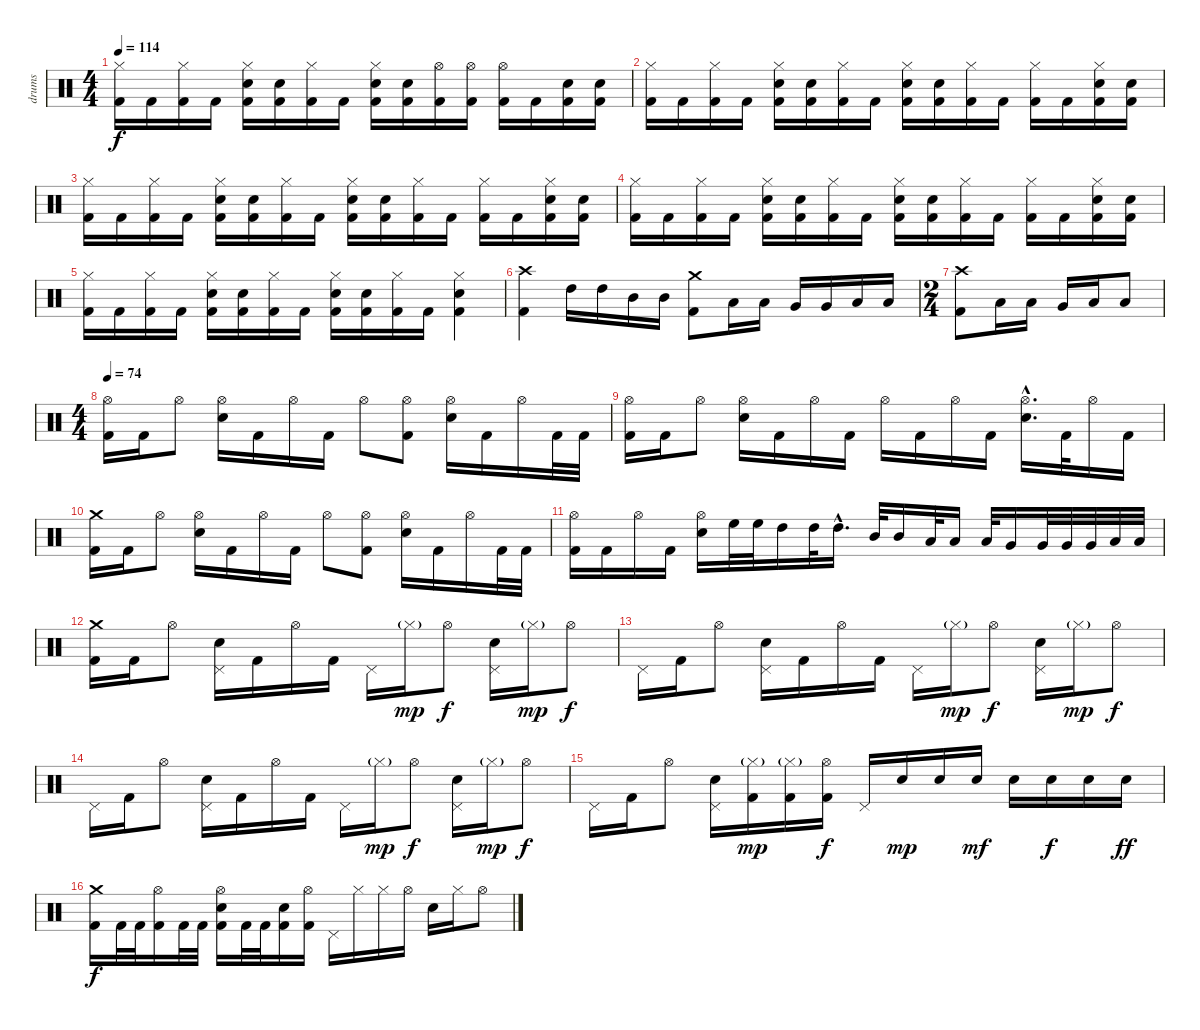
\track ("drums" "drums") {instrument percussion}
\staff {score}
\articulation defaults
\ts (4 4)
\tempo 114
\clef neutral
\ks c
("Hi-Hat (closed)" "Kick (hit) 2").16{dy f} "Kick (hit) 2".16 ("Hi-Hat (closed)" "Kick (hit) 2").16 "Kick (hit) 2".16 ("Hi-Hat (closed)" "Electric Snare (hit)" "Kick (hit) 2").16 ("Electric Snare (hit)" "Kick (hit) 2").16 ("Hi-Hat (closed)" "Kick (hit) 2").16 "Kick (hit) 2".16 ("Hi-Hat (closed)" "Electric Snare (hit)" "Kick (hit) 2").16 ("Electric Snare (hit)" "Kick (hit) 2").16 ("Hi-Hat (open)" "Kick (hit) 2").16 ("Hi-Hat (open)" "Kick (hit) 2").16 ("Hi-Hat (open)" "Kick (hit) 2").16 "Kick (hit) 2".16 ("Electric Snare (hit)" "Kick (hit) 2").16 ("Electric Snare (hit)" "Kick (hit) 2").16 |
("Hi-Hat (closed)" "Kick (hit) 2").16 "Kick (hit) 2".16 ("Hi-Hat (closed)" "Kick (hit) 2").16 "Kick (hit) 2".16 ("Hi-Hat (closed)" "Electric Snare (hit)" "Kick (hit) 2").16 ("Electric Snare (hit)" "Kick (hit) 2").16 ("Hi-Hat (closed)" "Kick (hit) 2").16 "Kick (hit) 2".16 ("Hi-Hat (closed)" "Electric Snare (hit)" "Kick (hit) 2").16 ("Electric Snare (hit)" "Kick (hit) 2").16 ("Hi-Hat (closed)" "Kick (hit) 2").16 "Kick (hit) 2".16 ("Hi-Hat (closed)" "Kick (hit) 2").16 "Kick (hit) 2".16 ("Hi-Hat (closed)" "Electric Snare (hit)" "Kick (hit) 2").16 ("Electric Snare (hit)" "Kick (hit) 2").16 |
("Hi-Hat (closed)" "Kick (hit) 2").16 "Kick (hit) 2".16 ("Hi-Hat (closed)" "Kick (hit) 2").16 "Kick (hit) 2".16 ("Hi-Hat (closed)" "Electric Snare (hit)" "Kick (hit) 2").16 ("Electric Snare (hit)" "Kick (hit) 2").16 ("Hi-Hat (closed)" "Kick (hit) 2").16 "Kick (hit) 2".16 ("Hi-Hat (closed)" "Electric Snare (hit)" "Kick (hit) 2").16 ("Electric Snare (hit)" "Kick (hit) 2").16 ("Hi-Hat (closed)" "Kick (hit) 2").16 "Kick (hit) 2".16 ("Hi-Hat (closed)" "Kick (hit) 2").16 "Kick (hit) 2".16 ("Hi-Hat (closed)" "Electric Snare (hit)" "Kick (hit) 2").16 ("Electric Snare (hit)" "Kick (hit) 2").16 |
("Hi-Hat (closed)" "Kick (hit) 2").16 "Kick (hit) 2".16 ("Hi-Hat (closed)" "Kick (hit) 2").16 "Kick (hit) 2".16 ("Hi-Hat (closed)" "Electric Snare (hit)" "Kick (hit) 2").16 ("Electric Snare (hit)" "Kick (hit) 2").16 ("Hi-Hat (closed)" "Kick (hit) 2").16 "Kick (hit) 2".16 ("Hi-Hat (closed)" "Electric Snare (hit)" "Kick (hit) 2").16 ("Electric Snare (hit)" "Kick (hit) 2").16 ("Hi-Hat (closed)" "Kick (hit) 2").16 "Kick (hit) 2".16 ("Hi-Hat (closed)" "Kick (hit) 2").16 "Kick (hit) 2".16 ("Hi-Hat (closed)" "Electric Snare (hit)" "Kick (hit) 2").16 ("Electric Snare (hit)" "Kick (hit) 2").16 |
("Hi-Hat (closed)" "Kick (hit) 2").16 "Kick (hit) 2".16 ("Hi-Hat (closed)" "Kick (hit) 2").16 "Kick (hit) 2".16 ("Hi-Hat (closed)" "Electric Snare (hit)" "Kick (hit) 2").16 ("Electric Snare (hit)" "Kick (hit) 2").16 ("Hi-Hat (closed)" "Kick (hit) 2").16 "Kick (hit) 2".16 ("Hi-Hat (closed)" "Electric Snare (hit)" "Kick (hit) 2").16 ("Electric Snare (hit)" "Kick (hit) 2").16 ("Hi-Hat (closed)" "Kick (hit) 2").16 "Kick (hit) 2".16 ("Hi-Hat (closed)" "Electric Snare (hit)" "Kick (hit) 2").4 |
("Crash high (hit)" "Kick (hit) 2").4 "High Tom (hit)".16 "High Tom (hit)".16 "Mid Tom (hit)".16 "Mid Tom (hit)".16 ("Crash medium (hit)" "Kick (hit) 2").8 "Low Tom (hit)".16 "Low Tom (hit)".16 "Very Low Tom (hit)".16 "Very Low Tom (hit)".16 "Low Floor Tom (hit)".16 "Low Floor Tom (hit)".16 |
\ts (2 4)
("Crash high (hit)" "Kick (hit) 2").8 "Low Tom (hit)".16 "Low Tom (hit)".16 "Very Low Tom (hit)".16 "Low Tom (hit)".16 "Low Floor Tom (hit)".8 |
\ts (4 4)
\tempo 74
("Hi-Hat (open)" "Kick (hit) 2").16 "Kick (hit) 2".16 "Hi-Hat (open)".8 ("Hi-Hat (open)" "Electric Snare (hit)").16 "Kick (hit) 2".16 "Hi-Hat (open)".16 "Kick (hit) 2".16 "Hi-Hat (open)".8 ("Hi-Hat (open)" "Kick (hit) 2").8 ("Hi-Hat (open)" "Electric Snare (hit)").16 "Kick (hit) 2".16 "Hi-Hat (open)".16 "Kick (hit) 2".32 "Kick (hit) 2".32 |
("Hi-Hat (open)" "Kick (hit) 2").16 "Kick (hit) 2".16 "Hi-Hat (open)".8 ("Hi-Hat (open)" "Electric Snare (hit)").16 "Kick (hit) 2".16 "Hi-Hat (open)".16 "Kick (hit) 2".16 "Hi-Hat (open)".16 "Kick (hit) 2".16 "Hi-Hat (open)".16 "Kick (hit) 2".16 ("Hi-Hat (open)"{hac} "Electric Snare (hit)"{hac}).16{d} "Kick (hit) 2".32 "Hi-Hat (open)".16 "Kick (hit) 2".16 |
("Crash medium (hit)" "Kick (hit) 2").16 "Kick (hit) 2".16 "Hi-Hat (open)".8 ("Hi-Hat (open)" "Electric Snare (hit)").16 "Kick (hit) 2".16 "Hi-Hat (open)".16 "Kick (hit) 2".16 "Hi-Hat (open)".8 ("Hi-Hat (open)" "Kick (hit) 2").8 ("Hi-Hat (open)" "Electric Snare (hit)").16 "Kick (hit) 2".16 "Hi-Hat (open)".16 "Kick (hit) 2".32 "Kick (hit) 2".32 |
("Hi-Hat (open)" "Kick (hit) 2").16 "Kick (hit) 2".16 "Hi-Hat (open)".16 "Kick (hit) 2".16 ("Hi-Hat (open)" "Electric Snare (hit)").16 "High Floor Tom (hit)".32 "High Floor Tom (hit)".32 "High Tom (hit)".16 "High Tom (hit)".32 "High Tom (hit)"{hac}.16{d} "Mid Tom (hit)".32 "Mid Tom (hit)".16 "Low Tom (hit)".32 "Low Tom (hit)".16 "Low Tom (hit)".32 "Very Low Tom (hit)".16 "Very Low Tom (hit)".32 "Very Low Tom (hit)".32 "Very Low Tom (hit)".32 "Low Floor Tom (hit)".32 "Low Floor Tom (hit)".32 |
("Crash medium (hit)" "Kick (hit) 2").16 "Kick (hit) 2".16 "Hi-Hat (open)".8 ("Electric Snare (hit)" "Pedal Hi-Hat (hit)").16 "Kick (hit) 2".16 "Hi-Hat (open)".16 "Kick (hit) 2".16 "Pedal Hi-Hat (hit)".16 "Hi-Hat (closed)"{g}.16{dy mp} "Hi-Hat (open)".8{dy f} ("Electric Snare (hit)" "Pedal Hi-Hat (hit)").16 "Hi-Hat (closed)"{g}.16{dy mp} "Hi-Hat (open)".8{dy f} |
"Pedal Hi-Hat (hit)".16 "Kick (hit) 2".16 "Hi-Hat (open)".8 ("Electric Snare (hit)" "Pedal Hi-Hat (hit)").16 "Kick (hit) 2".16 "Hi-Hat (open)".16 "Kick (hit) 2".16 "Pedal Hi-Hat (hit)".16 "Hi-Hat (closed)"{g}.16{dy mp} "Hi-Hat (open)".8{dy f} ("Electric Snare (hit)" "Pedal Hi-Hat (hit)").16 "Hi-Hat (closed)"{g}.16{dy mp} "Hi-Hat (open)".8{dy f} |
"Pedal Hi-Hat (hit)".16 "Kick (hit) 2".16 "Hi-Hat (open)".8 ("Electric Snare (hit)" "Pedal Hi-Hat (hit)").16 "Kick (hit) 2".16 "Hi-Hat (open)".16 "Kick (hit) 2".16 "Pedal Hi-Hat (hit)".16 "Hi-Hat (closed)"{g}.16{dy mp} "Hi-Hat (open)".8{dy f} ("Electric Snare (hit)" "Pedal Hi-Hat (hit)").16 "Hi-Hat (closed)"{g}.16{dy mp} "Hi-Hat (open)".8{dy f} |
"Pedal Hi-Hat (hit)".16 "Kick (hit) 2".16 "Hi-Hat (open)".8 ("Electric Snare (hit)" "Pedal Hi-Hat (hit)").16 ("Hi-Hat (closed)"{g} "Kick (hit) 2").16{dy mp} ("Hi-Hat (closed)"{g} "Kick (hit) 2").16 ("Hi-Hat (open)" "Kick (hit) 2").16{dy f} "Pedal Hi-Hat (hit)".16{volume 16} "Electric Snare (hit)".16{dy mp} "Electric Snare (hit)".16 "Electric Snare (hit)".16{dy mf} "Electric Snare (hit)".16 "Electric Snare (hit)".16{dy f} "Electric Snare (hit)".16 "Electric Snare (hit)".16{dy ff} |
("Crash medium (hit)" "Kick (hit) 2").16{dy f} "Kick (hit) 2".32 "Kick (hit) 2".32 ("Hi-Hat (open)" "Kick (hit) 2").16 "Kick (hit) 2".32 "Kick (hit) 2".32 ("Hi-Hat (open)" "Electric Snare (hit)" "Kick (hit) 2").16 "Kick (hit) 2".32 "Kick (hit) 2".32 ("Electric Snare (hit)" "Kick (hit) 2").16 ("Hi-Hat (open)" "Kick (hit) 2").16 "Pedal Hi-Hat (hit)".16 "Hi-Hat (closed)".16 "Hi-Hat (closed)".16 "Hi-Hat (open)".16 "Electric Snare (hit)".16 "Hi-Hat (closed)".16 "Hi-Hat (open)".8
